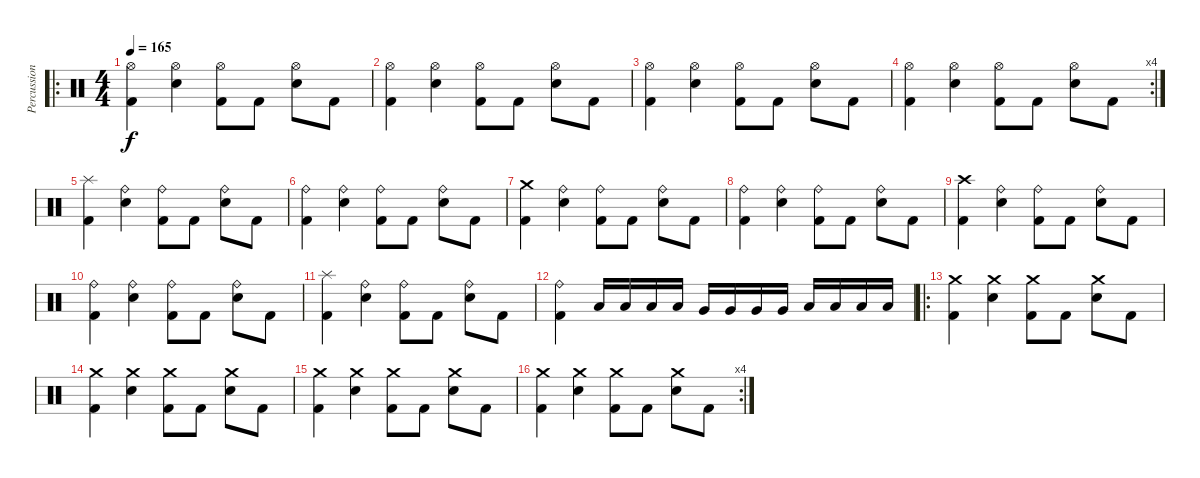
\track ("Percussions" "Percussion") {instrument percussion}
\staff {score}
\articulation defaults
\ro
\ts (4 4)
\tempo 165
\clef neutral
\ks c
("Kick (hit) 2" "Hi-Hat (open)").4{dy f} ("Snare (hit) 2" "Hi-Hat (open)").4 ("Kick (hit) 2" "Hi-Hat (open)").8 "Kick (hit) 2".8 ("Snare (hit) 2" "Hi-Hat (open)").8 "Kick (hit) 2".8 |
("Kick (hit) 2" "Hi-Hat (open)").4 ("Snare (hit) 2" "Hi-Hat (open)").4 ("Kick (hit) 2" "Hi-Hat (open)").8 "Kick (hit) 2".8 ("Snare (hit) 2" "Hi-Hat (open)").8 "Kick (hit) 2".8 |
("Kick (hit) 2" "Hi-Hat (open)").4 ("Snare (hit) 2" "Hi-Hat (open)").4 ("Kick (hit) 2" "Hi-Hat (open)").8 "Kick (hit) 2".8 ("Snare (hit) 2" "Hi-Hat (open)").8 "Kick (hit) 2".8 |
\rc 4
("Kick (hit) 2" "Hi-Hat (open)").4 ("Snare (hit) 2" "Hi-Hat (open)").4 ("Kick (hit) 2" "Hi-Hat (open)").8 "Kick (hit) 2".8 ("Snare (hit) 2" "Hi-Hat (open)").8 "Kick (hit) 2".8 |
("Kick (hit) 2" "Splash (hit)").4 ("Snare (hit) 2" "Ride (bell)").4 ("Kick (hit) 2" "Ride (bell)").8 "Kick (hit) 2".8 ("Snare (hit) 2" "Ride (bell)").8 "Kick (hit) 2".8 |
("Kick (hit) 2" "Ride (bell)").4 ("Snare (hit) 2" "Ride (bell)").4 ("Kick (hit) 2" "Ride (bell)").8 "Kick (hit) 2".8 ("Snare (hit) 2" "Ride (bell)").8 "Kick (hit) 2".8 |
("Kick (hit) 2" "Crash medium (hit)").4 ("Snare (hit) 2" "Ride (bell)").4 ("Kick (hit) 2" "Ride (bell)").8 "Kick (hit) 2".8 ("Snare (hit) 2" "Ride (bell)").8 "Kick (hit) 2".8 |
("Kick (hit) 2" "Ride (bell)").4 ("Snare (hit) 2" "Ride (bell)").4 ("Kick (hit) 2" "Ride (bell)").8 "Kick (hit) 2".8 ("Snare (hit) 2" "Ride (bell)").8 "Kick (hit) 2".8 |
("Kick (hit) 2" "Crash high (hit)").4 ("Snare (hit) 2" "Ride (bell)").4 ("Kick (hit) 2" "Ride (bell)").8 "Kick (hit) 2".8 ("Snare (hit) 2" "Ride (bell)").8 "Kick (hit) 2".8 |
("Kick (hit) 2" "Ride (bell)").4 ("Snare (hit) 2" "Ride (bell)").4 ("Kick (hit) 2" "Ride (bell)").8 "Kick (hit) 2".8 ("Snare (hit) 2" "Ride (bell)").8 "Kick (hit) 2".8 |
("Kick (hit) 2" "Splash (hit)").4 ("Snare (hit) 2" "Ride (bell)").4 ("Kick (hit) 2" "Ride (bell)").8 "Kick (hit) 2".8 ("Snare (hit) 2" "Ride (bell)").8 "Kick (hit) 2".8 |
("Kick (hit) 2" "Ride (bell)").4 "Low Tom (hit)".16 "Low Tom (hit)".16 "Low Tom (hit)".16 "Low Tom (hit)".16 "Very Low Tom (hit)".16 "Very Low Tom (hit)".16 "Very Low Tom (hit)".16 "Very Low Tom (hit)".16 "Low Floor Tom (hit)".16 "Low Floor Tom (hit)".16 "Low Floor Tom (hit)".16 "Low Floor Tom (hit)".16 |
\ro
("Kick (hit) 2" "Crash medium (hit)").4 ("Snare (hit) 2" "Crash medium (hit)").4 ("Kick (hit) 2" "Crash medium (hit)").8 "Kick (hit) 2".8 ("Snare (hit) 2" "Crash medium (hit)").8 "Kick (hit) 2".8 |
("Kick (hit) 2" "Crash medium (hit)").4 ("Snare (hit) 2" "Crash medium (hit)").4 ("Kick (hit) 2" "Crash medium (hit)").8 "Kick (hit) 2".8 ("Snare (hit) 2" "Crash medium (hit)").8 "Kick (hit) 2".8 |
("Kick (hit) 2" "Crash medium (hit)").4 ("Snare (hit) 2" "Crash medium (hit)").4 ("Kick (hit) 2" "Crash medium (hit)").8 "Kick (hit) 2".8 ("Snare (hit) 2" "Crash medium (hit)").8 "Kick (hit) 2".8 |
\rc 4
("Kick (hit) 2" "Crash medium (hit)").4 ("Snare (hit) 2" "Crash medium (hit)").4 ("Kick (hit) 2" "Crash medium (hit)").8 "Kick (hit) 2".8 ("Snare (hit) 2" "Crash medium (hit)").8 "Kick (hit) 2".8
